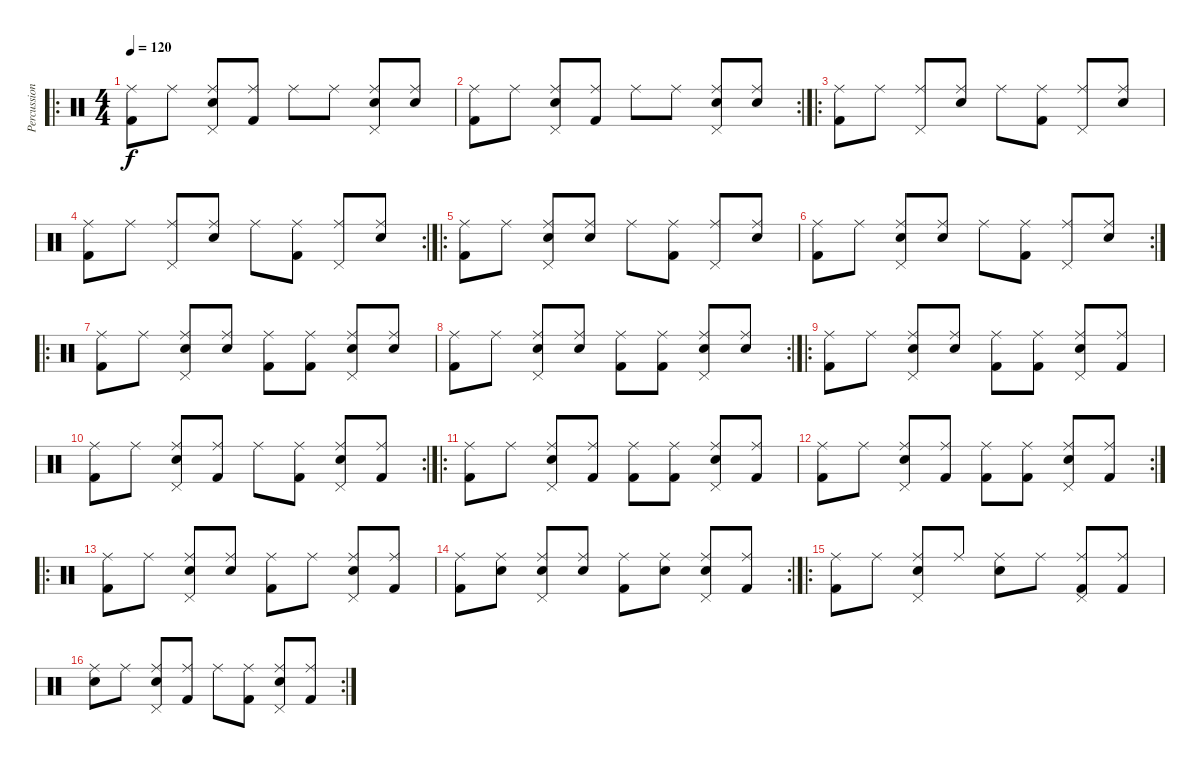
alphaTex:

\track ("Percussion" "Percussion") {instrument percussion}
\staff {score}
\articulation defaults
\ro
\ts (4 4)
\tempo 120
\clef neutral
\ks c
("Ride (middle)" "Kick (hit) 2").8{dy f} "Ride (middle)".8 ("Ride (middle)" "Electric Snare (hit)" "Pedal Hi-Hat (hit)").8 ("Ride (middle)" "Kick (hit) 2").8 "Ride (middle)".8 "Ride (middle)".8 ("Ride (middle)" "Electric Snare (hit)" "Pedal Hi-Hat (hit)").8 ("Ride (middle)" "Electric Snare (hit)").8 |
\rc 2
("Ride (middle)" "Kick (hit) 2").8 "Ride (middle)".8 ("Ride (middle)" "Electric Snare (hit)" "Pedal Hi-Hat (hit)").8 ("Ride (middle)" "Kick (hit) 2").8 "Ride (middle)".8 "Ride (middle)".8 ("Ride (middle)" "Electric Snare (hit)" "Pedal Hi-Hat (hit)").8 ("Ride (middle)" "Electric Snare (hit)").8 |
\ro
("Ride (middle)" "Kick (hit) 2").8 "Ride (middle)".8 ("Ride (middle)" "Pedal Hi-Hat (hit)").8 ("Ride (middle)" "Electric Snare (hit)").8 "Ride (middle)".8 ("Ride (middle)" "Kick (hit) 2").8 ("Ride (middle)" "Pedal Hi-Hat (hit)").8 ("Ride (middle)" "Electric Snare (hit)").8 |
\rc 2
("Ride (middle)" "Kick (hit) 2").8 "Ride (middle)".8 ("Ride (middle)" "Pedal Hi-Hat (hit)").8 ("Ride (middle)" "Electric Snare (hit)").8 "Ride (middle)".8 ("Ride (middle)" "Kick (hit) 2").8 ("Ride (middle)" "Pedal Hi-Hat (hit)").8 ("Ride (middle)" "Electric Snare (hit)").8 |
\ro
("Ride (middle)" "Kick (hit) 2").8 "Ride (middle)".8 ("Ride (middle)" "Electric Snare (hit)" "Pedal Hi-Hat (hit)").8 ("Ride (middle)" "Electric Snare (hit)").8 "Ride (middle)".8 ("Ride (middle)" "Kick (hit) 2").8 ("Ride (middle)" "Pedal Hi-Hat (hit)").8 ("Ride (middle)" "Electric Snare (hit)").8 |
\rc 2
("Ride (middle)" "Kick (hit) 2").8 "Ride (middle)".8 ("Ride (middle)" "Electric Snare (hit)" "Pedal Hi-Hat (hit)").8 ("Ride (middle)" "Electric Snare (hit)").8 "Ride (middle)".8 ("Ride (middle)" "Kick (hit) 2").8 ("Ride (middle)" "Pedal Hi-Hat (hit)").8 ("Ride (middle)" "Electric Snare (hit)").8 |
\ro
("Ride (middle)" "Kick (hit) 2").8 "Ride (middle)".8 ("Ride (middle)" "Electric Snare (hit)" "Pedal Hi-Hat (hit)").8 ("Ride (middle)" "Electric Snare (hit)").8 ("Ride (middle)" "Kick (hit) 2").8 ("Ride (middle)" "Kick (hit) 2").8 ("Ride (middle)" "Electric Snare (hit)" "Pedal Hi-Hat (hit)").8 ("Ride (middle)" "Electric Snare (hit)").8 |
\rc 2
("Ride (middle)" "Kick (hit) 2").8 "Ride (middle)".8 ("Ride (middle)" "Electric Snare (hit)" "Pedal Hi-Hat (hit)").8 ("Ride (middle)" "Electric Snare (hit)").8 ("Ride (middle)" "Kick (hit) 2").8 ("Ride (middle)" "Kick (hit) 2").8 ("Ride (middle)" "Electric Snare (hit)" "Pedal Hi-Hat (hit)").8 ("Ride (middle)" "Electric Snare (hit)").8 |
\ro
("Ride (middle)" "Kick (hit) 2").8 "Ride (middle)".8 ("Ride (middle)" "Electric Snare (hit)" "Pedal Hi-Hat (hit)").8 ("Ride (middle)" "Electric Snare (hit)").8 ("Ride (middle)" "Kick (hit) 2").8 ("Ride (middle)" "Kick (hit) 2").8 ("Ride (middle)" "Electric Snare (hit)" "Pedal Hi-Hat (hit)").8 ("Ride (middle)" "Kick (hit) 2").8 |
\rc 2
("Ride (middle)" "Kick (hit) 2").8 "Ride (middle)".8 ("Ride (middle)" "Electric Snare (hit)" "Pedal Hi-Hat (hit)").8 ("Ride (middle)" "Kick (hit) 2").8 "Ride (middle)".8 ("Ride (middle)" "Kick (hit) 2").8 ("Ride (middle)" "Electric Snare (hit)" "Pedal Hi-Hat (hit)").8 ("Ride (middle)" "Kick (hit) 2").8 |
\ro
("Ride (middle)" "Kick (hit) 2").8 "Ride (middle)".8 ("Ride (middle)" "Electric Snare (hit)" "Pedal Hi-Hat (hit)").8 ("Ride (middle)" "Kick (hit) 2").8 ("Ride (middle)" "Kick (hit) 2").8 ("Ride (middle)" "Kick (hit) 2").8 ("Ride (middle)" "Electric Snare (hit)" "Pedal Hi-Hat (hit)").8 ("Ride (middle)" "Kick (hit) 2").8 |
\rc 2
("Ride (middle)" "Kick (hit) 2").8 "Ride (middle)".8 ("Ride (middle)" "Electric Snare (hit)" "Pedal Hi-Hat (hit)").8 ("Ride (middle)" "Kick (hit) 2").8 ("Ride (middle)" "Kick (hit) 2").8 ("Ride (middle)" "Kick (hit) 2").8 ("Ride (middle)" "Electric Snare (hit)" "Pedal Hi-Hat (hit)").8 ("Ride (middle)" "Kick (hit) 2").8 |
\ro
("Ride (middle)" "Kick (hit) 2").8 "Ride (middle)".8 ("Ride (middle)" "Electric Snare (hit)" "Pedal Hi-Hat (hit)").8 ("Ride (middle)" "Electric Snare (hit)").8 ("Ride (middle)" "Kick (hit) 2").8 "Ride (middle)".8 ("Ride (middle)" "Electric Snare (hit)" "Pedal Hi-Hat (hit)").8 ("Ride (middle)" "Kick (hit) 2").8 |
\rc 2
("Ride (middle)" "Kick (hit) 2").8 ("Ride (middle)" "Electric Snare (hit)").8 ("Ride (middle)" "Electric Snare (hit)" "Pedal Hi-Hat (hit)").8 ("Ride (middle)" "Electric Snare (hit)").8 ("Ride (middle)" "Kick (hit) 2").8 ("Ride (middle)" "Electric Snare (hit)").8 ("Ride (middle)" "Electric Snare (hit)" "Pedal Hi-Hat (hit)").8 ("Ride (middle)" "Kick (hit) 2").8 |
\ro
("Ride (middle)" "Kick (hit) 2").8 "Ride (middle)".8 ("Ride (middle)" "Electric Snare (hit)" "Pedal Hi-Hat (hit)").8 "Ride (middle)".8 ("Ride (middle)" "Electric Snare (hit)").8 "Ride (middle)".8 ("Ride (middle)" "Kick (hit) 2" "Pedal Hi-Hat (hit)").8 ("Ride (middle)" "Kick (hit) 2").8 |
\rc 2
("Ride (middle)" "Electric Snare (hit)").8 "Ride (middle)".8 ("Ride (middle)" "Electric Snare (hit)" "Pedal Hi-Hat (hit)").8 ("Ride (middle)" "Kick (hit) 2").8 "Ride (middle)".8 ("Ride (middle)" "Kick (hit) 2").8 ("Ride (middle)" "Electric Snare (hit)" "Pedal Hi-Hat (hit)").8 ("Ride (middle)" "Kick (hit) 2").8
